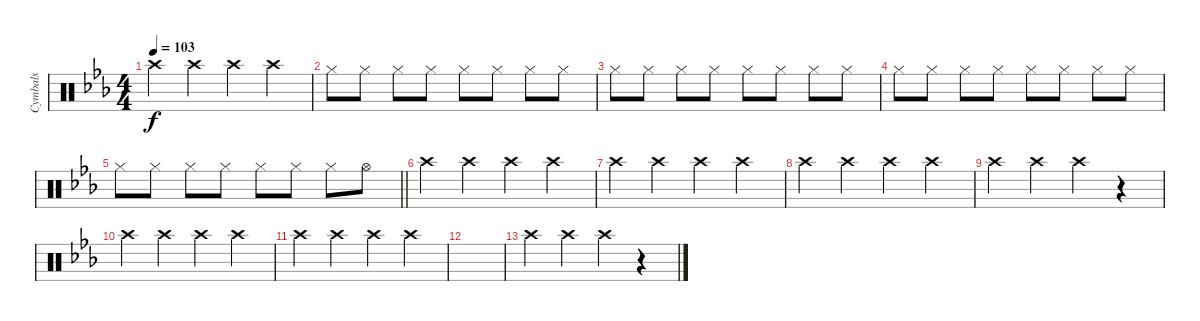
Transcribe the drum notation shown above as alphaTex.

\track ("Cymbals" "Cymbals") {instrument percussion}
\staff {score}
\articulation defaults
\ts (4 4)
\tempo 103
\clef neutral
\ks cminor "Crash high (hit)".4{dy f} "Crash high (hit)".4 "Crash high (hit)".4 "Crash high (hit)".4
|
"Hi-Hat (closed)".8 "Hi-Hat (closed)".8 "Hi-Hat (closed)".8 "Hi-Hat (closed)".8 "Hi-Hat (closed)".8 "Hi-Hat (closed)".8 "Hi-Hat (closed)".8 "Hi-Hat (closed)".8 |
"Hi-Hat (closed)".8 "Hi-Hat (closed)".8 "Hi-Hat (closed)".8 "Hi-Hat (closed)".8 "Hi-Hat (closed)".8 "Hi-Hat (closed)".8 "Hi-Hat (closed)".8 "Hi-Hat (closed)".8 |
"Hi-Hat (closed)".8 "Hi-Hat (closed)".8 "Hi-Hat (closed)".8 "Hi-Hat (closed)".8 "Hi-Hat (closed)".8 "Hi-Hat (closed)".8 "Hi-Hat (closed)".8 "Hi-Hat (closed)".8 |
\barLineRight lightlight "Hi-Hat (closed)".8 "Hi-Hat (closed)".8 "Hi-Hat (closed)".8 "Hi-Hat (closed)".8 "Hi-Hat (closed)".8 "Hi-Hat (closed)".8 "Hi-Hat (closed)".8 "Hi-Hat (open)".8
|
"Crash high (hit)".4 "Crash high (hit)".4 "Crash high (hit)".4 "Crash high (hit)".4 |
"Crash high (hit)".4 "Crash high (hit)".4 "Crash high (hit)".4 "Crash high (hit)".4 |
"Crash high (hit)".4 "Crash high (hit)".4 "Crash high (hit)".4 "Crash high (hit)".4 |
"Crash high (hit)".4 "Crash high (hit)".4 "Crash high (hit)".4 r.4 |
"Crash high (hit)".4 "Crash high (hit)".4 "Crash high (hit)".4 "Crash high (hit)".4 |
"Crash high (hit)".4 "Crash high (hit)".4 "Crash high (hit)".4 "Crash high (hit)".4 |
|
"Crash high (hit)".4 "Crash high (hit)".4 "Crash high (hit)".4 r.4
